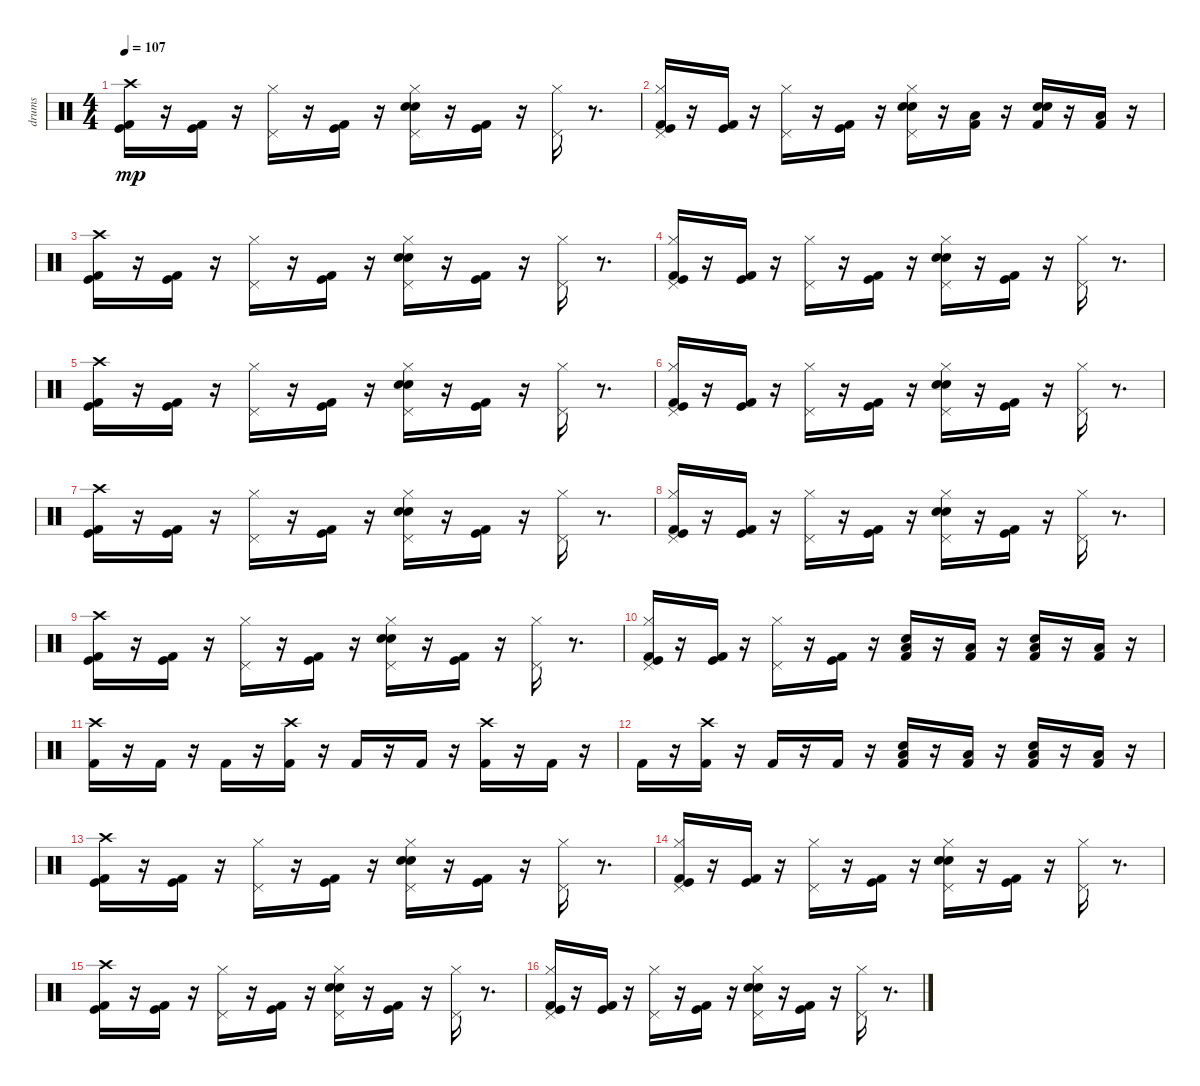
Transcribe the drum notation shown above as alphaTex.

\track ("drums" "drums") {instrument percussion}
\staff {score}
\articulation defaults
\ts (4 4)
\tempo 107
\clef neutral
\ks c
("Kick (hit) 2" "Kick (hit)" "Crash high (hit)").16{dy mp} r.16 ("Kick (hit) 2" "Kick (hit)").16 r.16 ("Hi-Hat (closed)" "Pedal Hi-Hat (hit)").16 r.16 ("Kick (hit) 2" "Kick (hit)").16 r.16 ("Electric Snare (hit)" "Hi-Hat (closed)" "Snare (hit) 2" "Pedal Hi-Hat (hit)").16 r.16 ("Kick (hit)" "Kick (hit) 2").16 r.16 ("Hi-Hat (closed)" "Pedal Hi-Hat (hit)").16 r.8{d} |
("Hi-Hat (closed)" "Kick (hit) 2" "Kick (hit)" "Pedal Hi-Hat (hit)").16 r.16 ("Kick (hit) 2" "Kick (hit)").16 r.16 ("Hi-Hat (closed)" "Pedal Hi-Hat (hit)").16 r.16 ("Kick (hit) 2" "Kick (hit)").16 r.16 ("Electric Snare (hit)" "Hi-Hat (closed)" "Snare (hit) 2" "Pedal Hi-Hat (hit)").16 r.16 ("Low Tom (hit)" "Kick (hit) 2").16 r.16 ("Snare (hit) 2" "Electric Snare (hit)" "Kick (hit) 2").16 r.16 ("Low Tom (hit)" "Kick (hit) 2").16 r.16 |
("Kick (hit) 2" "Kick (hit)" "Crash high (hit)").16 r.16 ("Kick (hit) 2" "Kick (hit)").16 r.16 ("Hi-Hat (closed)" "Pedal Hi-Hat (hit)").16 r.16 ("Kick (hit) 2" "Kick (hit)").16 r.16 ("Electric Snare (hit)" "Hi-Hat (closed)" "Snare (hit) 2" "Pedal Hi-Hat (hit)").16 r.16 ("Kick (hit)" "Kick (hit) 2").16 r.16 ("Hi-Hat (closed)" "Pedal Hi-Hat (hit)").16 r.8{d} |
("Hi-Hat (closed)" "Kick (hit) 2" "Kick (hit)" "Pedal Hi-Hat (hit)").16 r.16 ("Kick (hit) 2" "Kick (hit)").16 r.16 ("Hi-Hat (closed)" "Pedal Hi-Hat (hit)").16 r.16 ("Kick (hit) 2" "Kick (hit)").16 r.16 ("Electric Snare (hit)" "Hi-Hat (closed)" "Snare (hit) 2" "Pedal Hi-Hat (hit)").16 r.16 ("Kick (hit)" "Kick (hit) 2").16 r.16 ("Hi-Hat (closed)" "Pedal Hi-Hat (hit)").16 r.8{d} |
("Kick (hit) 2" "Kick (hit)" "Crash high (hit)").16 r.16 ("Kick (hit) 2" "Kick (hit)").16 r.16 ("Hi-Hat (closed)" "Pedal Hi-Hat (hit)").16 r.16 ("Kick (hit) 2" "Kick (hit)").16 r.16 ("Electric Snare (hit)" "Hi-Hat (closed)" "Snare (hit) 2" "Pedal Hi-Hat (hit)").16 r.16 ("Kick (hit)" "Kick (hit) 2").16 r.16 ("Hi-Hat (closed)" "Pedal Hi-Hat (hit)").16 r.8{d} |
("Hi-Hat (closed)" "Kick (hit) 2" "Kick (hit)" "Pedal Hi-Hat (hit)").16 r.16 ("Kick (hit) 2" "Kick (hit)").16 r.16 ("Hi-Hat (closed)" "Pedal Hi-Hat (hit)").16 r.16 ("Kick (hit) 2" "Kick (hit)").16 r.16 ("Electric Snare (hit)" "Hi-Hat (closed)" "Snare (hit) 2" "Pedal Hi-Hat (hit)").16 r.16 ("Kick (hit)" "Kick (hit) 2").16 r.16 ("Hi-Hat (closed)" "Pedal Hi-Hat (hit)").16 r.8{d} |
("Kick (hit) 2" "Kick (hit)" "Crash high (hit)").16 r.16 ("Kick (hit) 2" "Kick (hit)").16 r.16 ("Hi-Hat (closed)" "Pedal Hi-Hat (hit)").16 r.16 ("Kick (hit) 2" "Kick (hit)").16 r.16 ("Electric Snare (hit)" "Hi-Hat (closed)" "Snare (hit) 2" "Pedal Hi-Hat (hit)").16 r.16 ("Kick (hit)" "Kick (hit) 2").16 r.16 ("Hi-Hat (closed)" "Pedal Hi-Hat (hit)").16 r.8{d} |
("Hi-Hat (closed)" "Kick (hit) 2" "Kick (hit)" "Pedal Hi-Hat (hit)").16 r.16 ("Kick (hit) 2" "Kick (hit)").16 r.16 ("Hi-Hat (closed)" "Pedal Hi-Hat (hit)").16 r.16 ("Kick (hit) 2" "Kick (hit)").16 r.16 ("Electric Snare (hit)" "Hi-Hat (closed)" "Snare (hit) 2" "Pedal Hi-Hat (hit)").16 r.16 ("Kick (hit)" "Kick (hit) 2").16 r.16 ("Hi-Hat (closed)" "Pedal Hi-Hat (hit)").16 r.8{d} |
("Kick (hit) 2" "Kick (hit)" "Crash high (hit)").16 r.16 ("Kick (hit) 2" "Kick (hit)").16 r.16 ("Hi-Hat (closed)" "Pedal Hi-Hat (hit)").16 r.16 ("Kick (hit) 2" "Kick (hit)").16 r.16 ("Electric Snare (hit)" "Hi-Hat (closed)" "Snare (hit) 2" "Pedal Hi-Hat (hit)").16 r.16 ("Kick (hit)" "Kick (hit) 2").16 r.16 ("Hi-Hat (closed)" "Pedal Hi-Hat (hit)").16 r.8{d} |
("Hi-Hat (closed)" "Kick (hit) 2" "Kick (hit)" "Pedal Hi-Hat (hit)").16 r.16 ("Kick (hit) 2" "Kick (hit)").16 r.16 ("Hi-Hat (closed)" "Pedal Hi-Hat (hit)").16 r.16 ("Kick (hit) 2" "Kick (hit)").16 r.16 ("Low Tom (hit)" "Kick (hit) 2" "Snare (hit) 2").16 r.16 ("Low Tom (hit)" "Kick (hit) 2").16 r.16 ("Low Tom (hit)" "Kick (hit) 2" "Snare (hit) 2").16 r.16 ("Low Tom (hit)" "Kick (hit) 2").16 r.16 |
("Kick (hit) 2" "Crash high (hit)").16 r.16 "Kick (hit) 2".16 r.16 "Kick (hit) 2".16 r.16 ("Kick (hit) 2" "Crash high (hit)").16 r.16 "Kick (hit) 2".16 r.16 "Kick (hit) 2".16 r.16 ("Crash high (hit)" "Kick (hit) 2").16 r.16 "Kick (hit) 2".16 r.16 |
"Kick (hit) 2".16 r.16 ("Crash high (hit)" "Kick (hit) 2").16 r.16 "Kick (hit) 2".16 r.16 "Kick (hit) 2".16 r.16 ("Low Tom (hit)" "Kick (hit) 2" "Snare (hit) 2").16 r.16 ("Low Tom (hit)" "Kick (hit) 2").16 r.16 ("Low Tom (hit)" "Kick (hit) 2" "Snare (hit) 2").16 r.16 ("Low Tom (hit)" "Kick (hit) 2").16 r.16 |
("Kick (hit) 2" "Kick (hit)" "Crash high (hit)").16 r.16 ("Kick (hit) 2" "Kick (hit)").16 r.16 ("Hi-Hat (closed)" "Pedal Hi-Hat (hit)").16 r.16 ("Kick (hit) 2" "Kick (hit)").16 r.16 ("Electric Snare (hit)" "Hi-Hat (closed)" "Snare (hit) 2" "Pedal Hi-Hat (hit)").16 r.16 ("Kick (hit)" "Kick (hit) 2").16 r.16 ("Hi-Hat (closed)" "Pedal Hi-Hat (hit)").16 r.8{d} |
("Hi-Hat (closed)" "Kick (hit) 2" "Kick (hit)" "Pedal Hi-Hat (hit)").16 r.16 ("Kick (hit) 2" "Kick (hit)").16 r.16 ("Hi-Hat (closed)" "Pedal Hi-Hat (hit)").16 r.16 ("Kick (hit) 2" "Kick (hit)").16 r.16 ("Electric Snare (hit)" "Hi-Hat (closed)" "Snare (hit) 2" "Pedal Hi-Hat (hit)").16 r.16 ("Kick (hit)" "Kick (hit) 2").16 r.16 ("Hi-Hat (closed)" "Pedal Hi-Hat (hit)").16 r.8{d} |
("Kick (hit) 2" "Kick (hit)" "Crash high (hit)").16 r.16 ("Kick (hit) 2" "Kick (hit)").16 r.16 ("Hi-Hat (closed)" "Pedal Hi-Hat (hit)").16 r.16 ("Kick (hit) 2" "Kick (hit)").16 r.16 ("Electric Snare (hit)" "Hi-Hat (closed)" "Snare (hit) 2" "Pedal Hi-Hat (hit)").16 r.16 ("Kick (hit)" "Kick (hit) 2").16 r.16 ("Hi-Hat (closed)" "Pedal Hi-Hat (hit)").16 r.8{d} |
("Hi-Hat (closed)" "Kick (hit) 2" "Kick (hit)" "Pedal Hi-Hat (hit)").16 r.16 ("Kick (hit) 2" "Kick (hit)").16 r.16 ("Hi-Hat (closed)" "Pedal Hi-Hat (hit)").16 r.16 ("Kick (hit) 2" "Kick (hit)").16 r.16 ("Electric Snare (hit)" "Hi-Hat (closed)" "Snare (hit) 2" "Pedal Hi-Hat (hit)").16 r.16 ("Kick (hit)" "Kick (hit) 2").16 r.16 ("Hi-Hat (closed)" "Pedal Hi-Hat (hit)").16 r.8{d}
